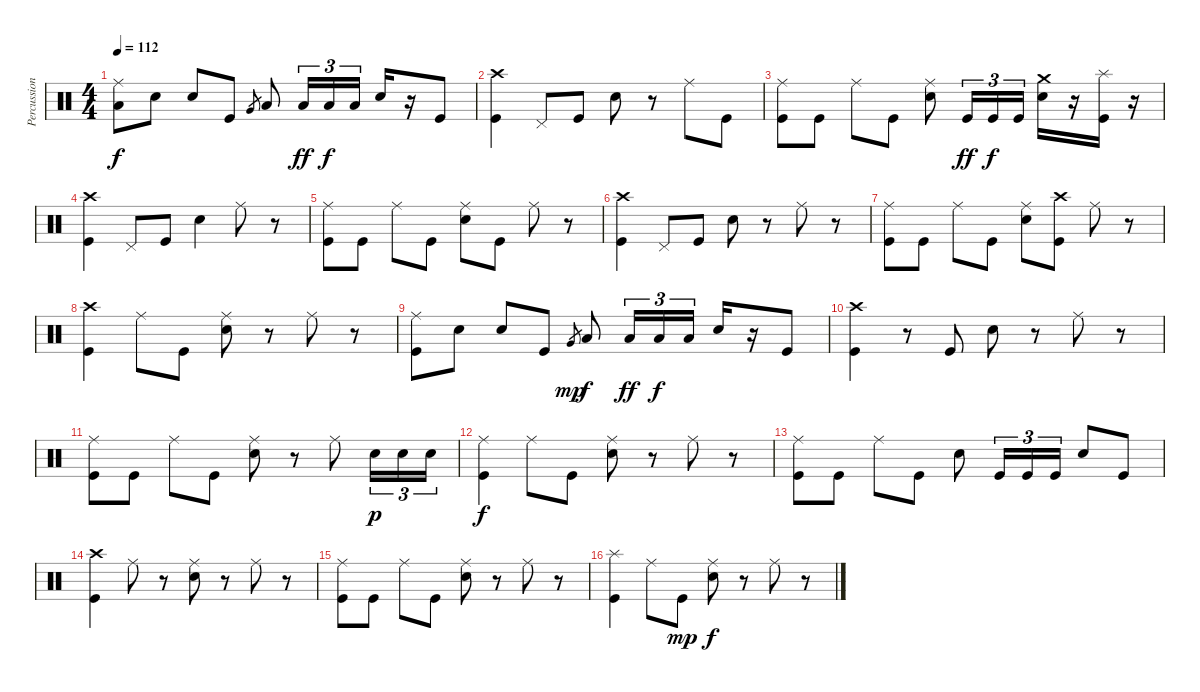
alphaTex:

\track ("Percussion" "Percussion") {instrument percussion}
\staff {score}
\articulation defaults
\ts (4 4)
\tempo 112
\clef neutral
\ks c
("Ride (middle)" "Low Tom (hit)").8{dy f} "Snare (hit) 2".8 "Snare (hit) 2".8 "Kick (hit)".8 "Very Low Tom (hit)".8{gr} "Low Tom (hit)".8 "Low Tom (hit)".16{tu (3 2) dy ff} "Low Tom (hit)".16{tu (3 2) dy f} "Low Tom (hit)".16{tu (3 2)} "Snare (hit) 2".16 r.16 "Kick (hit)".8 |
("Crash high (hit)" "Kick (hit)").4 "Pedal Hi-Hat (hit)".8 "Kick (hit)".8 "Snare (hit) 2".8 r.8 "Ride (middle)".8 "Kick (hit)".8 |
("Ride (middle)" "Kick (hit)").8 "Kick (hit)".8 "Ride (middle)".8 "Kick (hit)".8 ("Ride (middle)" "Snare (hit) 2").8 "Kick (hit)".16{tu (3 2) dy ff} "Kick (hit)".16{tu (3 2) dy f} "Kick (hit)".16{tu (3 2)} ("Crash medium (hit)" "Snare (hit) 2").16 r.16 ("Splash (hit)" "Kick (hit)").16 r.16 |
("Crash high (hit)" "Kick (hit)").4 "Pedal Hi-Hat (hit)".8 "Kick (hit)".8 "Snare (hit) 2".4 "Ride (middle)".8 r.8 |
("Ride (middle)" "Kick (hit)").8 "Kick (hit)".8 "Ride (middle)".8 "Kick (hit)".8 ("Ride (middle)" "Snare (hit) 2").8 "Kick (hit)".8 "Ride (middle)".8 r.8 |
("Crash high (hit)" "Kick (hit)").4 "Pedal Hi-Hat (hit)".8 "Kick (hit)".8 "Snare (hit) 2".8 r.8 "Ride (middle)".8 r.8 |
("Ride (middle)" "Kick (hit)").8 "Kick (hit)".8 "Ride (middle)".8 "Kick (hit)".8 ("Ride (middle)" "Snare (hit) 2").8 ("Crash high (hit)" "Kick (hit)").8 "Ride (middle)".8 r.8 |
("Crash high (hit)" "Kick (hit)").4 "Ride (middle)".8 "Kick (hit)".8 ("Ride (middle)" "Snare (hit) 2").8 r.8 "Ride (middle)".8 r.8 |
("Ride (middle)" "Kick (hit)").8 "Snare (hit) 2".8 "Snare (hit) 2".8 "Kick (hit)".8 "Very Low Tom (hit)".8{gr dy mp} "Low Tom (hit)".8{dy f} "Low Tom (hit)".16{tu (3 2) dy ff} "Low Tom (hit)".16{tu (3 2) dy f} "Low Tom (hit)".16{tu (3 2)} "Snare (hit) 2".16 r.16 "Kick (hit)".8 |
("Crash high (hit)" "Kick (hit)").4 r.8 "Kick (hit)".8 "Snare (hit) 2".8 r.8 "Ride (middle)".8 r.8 |
("Ride (middle)" "Kick (hit)").8 "Kick (hit)".8 "Ride (middle)".8 "Kick (hit)".8 ("Ride (middle)" "Snare (hit) 2").8 r.8 "Ride (middle)".8 "Snare (hit) 2".16{tu (3 2) dy p} "Snare (hit) 2".16{tu (3 2)} "Snare (hit) 2".16{tu (3 2)} |
("Ride (middle)" "Kick (hit)").4{dy f} "Ride (middle)".8 "Kick (hit)".8 ("Ride (middle)" "Snare (hit) 2").8 r.8 "Ride (middle)".8 r.8 |
("Ride (middle)" "Kick (hit)").8 "Kick (hit)".8 "Ride (middle)".8 "Kick (hit)".8 "Snare (hit) 2".8 "Kick (hit)".16{tu (3 2)} "Kick (hit)".16{tu (3 2)} "Kick (hit)".16{tu (3 2)} "Snare (hit) 2".8 "Kick (hit)".8 |
("Crash high (hit)" "Kick (hit)").4 "Ride (middle)".8 r.8 ("Ride (middle)" "Snare (hit) 2").8 r.8 "Ride (middle)".8 r.8 |
("Ride (middle)" "Kick (hit)").8 "Kick (hit)".8 "Ride (middle)".8 "Kick (hit)".8 ("Ride (middle)" "Snare (hit) 2").8 r.8 "Ride (middle)".8 r.8 |
("Splash (hit)" "Kick (hit)").4 "Ride (middle)".8 "Kick (hit)".8{dy mp} ("Ride (middle)" "Snare (hit) 2").8{dy f} r.8 "Ride (middle)".8 r.8
